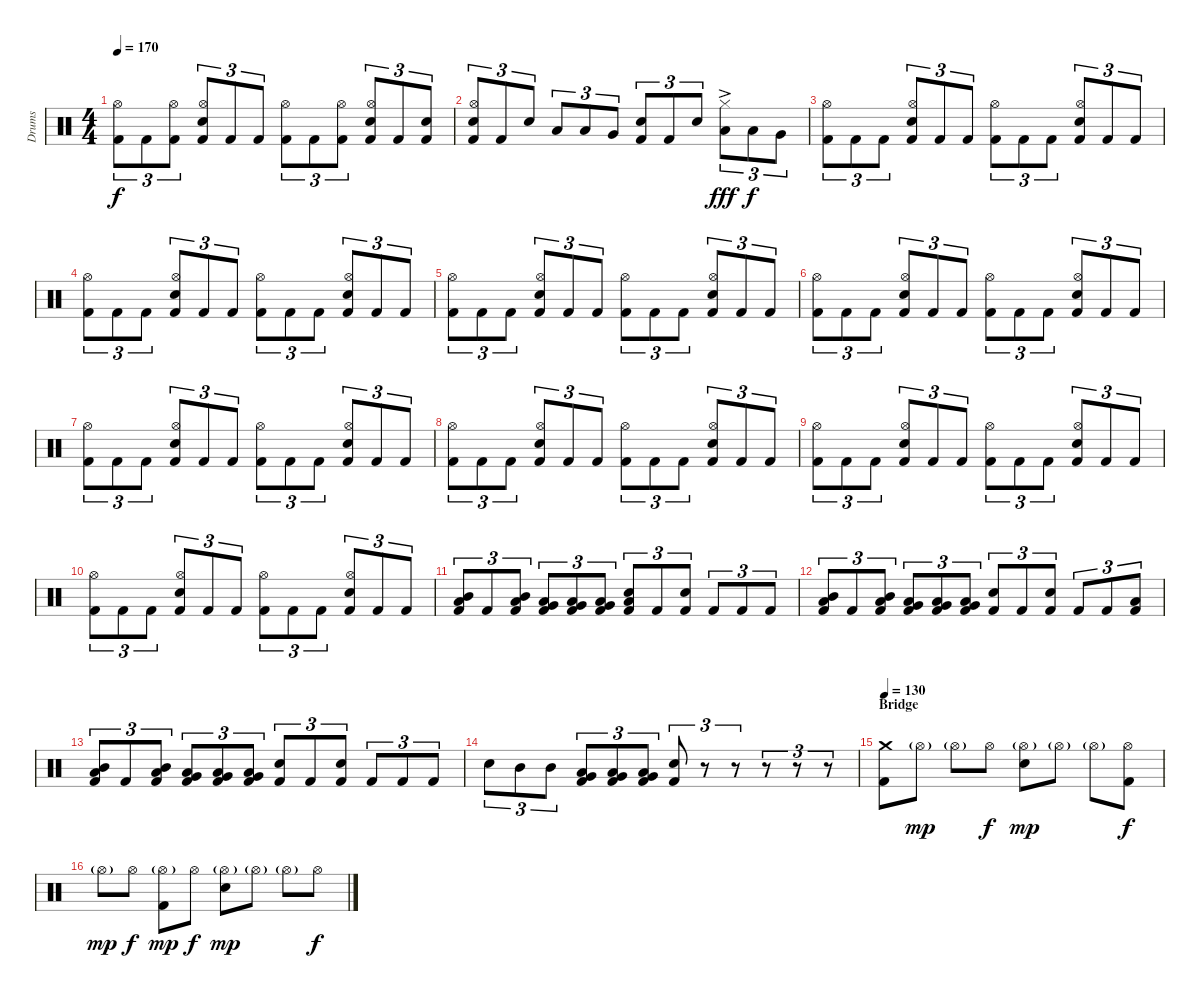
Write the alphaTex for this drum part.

\track ("Drums" "Drums") {instrument percussion}
\staff {score}
\articulation defaults
\ts (4 4)
\tempo 170
\clef neutral
\ks c
("Kick (hit) 2" "Hi-Hat (open)").8{tu (3 2) dy f} "Kick (hit) 2".8{tu (3 2)} ("Kick (hit) 2" "Hi-Hat (open)").8{tu (3 2)} ("Kick (hit) 2" "Electric Snare (hit)" "Hi-Hat (open)").8{tu (3 2)} "Kick (hit) 2".8{tu (3 2)} "Kick (hit) 2".8{tu (3 2)} ("Kick (hit) 2" "Hi-Hat (open)").8{tu (3 2)} "Kick (hit) 2".8{tu (3 2)} ("Kick (hit) 2" "Hi-Hat (open)").8{tu (3 2)} ("Kick (hit) 2" "Electric Snare (hit)" "Hi-Hat (open)").8{tu (3 2)} "Kick (hit) 2".8{tu (3 2)} ("Kick (hit) 2" "Electric Snare (hit)").8{tu (3 2)} |
("Kick (hit) 2" "Electric Snare (hit)" "Hi-Hat (open)").8{tu (3 2)} "Kick (hit) 2".8{tu (3 2)} "Electric Snare (hit)".8{tu (3 2)} "Low Tom (hit)".8{tu (3 2)} "Low Tom (hit)".8{tu (3 2)} "Very Low Tom (hit)".8{tu (3 2)} ("Kick (hit) 2" "Electric Snare (hit)").8{tu (3 2)} "Kick (hit) 2".8{tu (3 2)} "Electric Snare (hit)".8{tu (3 2)} ("Low Tom (hit)" "Hi-Hat (closed)"{ac}).8{tu (3 2) dy fff} "Low Tom (hit)".8{tu (3 2) dy f} "Very Low Tom (hit)".8{tu (3 2)} |
("Kick (hit) 2" "Hi-Hat (open)").8{tu (3 2)} "Kick (hit) 2".8{tu (3 2)} "Kick (hit) 2".8{tu (3 2)} ("Kick (hit) 2" "Electric Snare (hit)" "Hi-Hat (open)").8{tu (3 2)} "Kick (hit) 2".8{tu (3 2)} "Kick (hit) 2".8{tu (3 2)} ("Kick (hit) 2" "Hi-Hat (open)").8{tu (3 2)} "Kick (hit) 2".8{tu (3 2)} "Kick (hit) 2".8{tu (3 2)} ("Kick (hit) 2" "Electric Snare (hit)" "Hi-Hat (open)").8{tu (3 2)} "Kick (hit) 2".8{tu (3 2)} "Kick (hit) 2".8{tu (3 2)} |
("Kick (hit) 2" "Hi-Hat (open)").8{tu (3 2)} "Kick (hit) 2".8{tu (3 2)} "Kick (hit) 2".8{tu (3 2)} ("Kick (hit) 2" "Electric Snare (hit)" "Hi-Hat (open)").8{tu (3 2)} "Kick (hit) 2".8{tu (3 2)} "Kick (hit) 2".8{tu (3 2)} ("Kick (hit) 2" "Hi-Hat (open)").8{tu (3 2)} "Kick (hit) 2".8{tu (3 2)} "Kick (hit) 2".8{tu (3 2)} ("Kick (hit) 2" "Electric Snare (hit)" "Hi-Hat (open)").8{tu (3 2)} "Kick (hit) 2".8{tu (3 2)} "Kick (hit) 2".8{tu (3 2)} |
("Kick (hit) 2" "Hi-Hat (open)").8{tu (3 2)} "Kick (hit) 2".8{tu (3 2)} "Kick (hit) 2".8{tu (3 2)} ("Kick (hit) 2" "Electric Snare (hit)" "Hi-Hat (open)").8{tu (3 2)} "Kick (hit) 2".8{tu (3 2)} "Kick (hit) 2".8{tu (3 2)} ("Kick (hit) 2" "Hi-Hat (open)").8{tu (3 2)} "Kick (hit) 2".8{tu (3 2)} "Kick (hit) 2".8{tu (3 2)} ("Kick (hit) 2" "Electric Snare (hit)" "Hi-Hat (open)").8{tu (3 2)} "Kick (hit) 2".8{tu (3 2)} "Kick (hit) 2".8{tu (3 2)} |
("Kick (hit) 2" "Hi-Hat (open)").8{tu (3 2)} "Kick (hit) 2".8{tu (3 2)} "Kick (hit) 2".8{tu (3 2)} ("Kick (hit) 2" "Electric Snare (hit)" "Hi-Hat (open)").8{tu (3 2)} "Kick (hit) 2".8{tu (3 2)} "Kick (hit) 2".8{tu (3 2)} ("Kick (hit) 2" "Hi-Hat (open)").8{tu (3 2)} "Kick (hit) 2".8{tu (3 2)} "Kick (hit) 2".8{tu (3 2)} ("Kick (hit) 2" "Electric Snare (hit)" "Hi-Hat (open)").8{tu (3 2)} "Kick (hit) 2".8{tu (3 2)} "Kick (hit) 2".8{tu (3 2)} |
("Kick (hit) 2" "Hi-Hat (open)").8{tu (3 2)} "Kick (hit) 2".8{tu (3 2)} "Kick (hit) 2".8{tu (3 2)} ("Kick (hit) 2" "Electric Snare (hit)" "Hi-Hat (open)").8{tu (3 2)} "Kick (hit) 2".8{tu (3 2)} "Kick (hit) 2".8{tu (3 2)} ("Kick (hit) 2" "Hi-Hat (open)").8{tu (3 2)} "Kick (hit) 2".8{tu (3 2)} "Kick (hit) 2".8{tu (3 2)} ("Kick (hit) 2" "Electric Snare (hit)" "Hi-Hat (open)").8{tu (3 2)} "Kick (hit) 2".8{tu (3 2)} "Kick (hit) 2".8{tu (3 2)} |
("Kick (hit) 2" "Hi-Hat (open)").8{tu (3 2)} "Kick (hit) 2".8{tu (3 2)} "Kick (hit) 2".8{tu (3 2)} ("Kick (hit) 2" "Electric Snare (hit)" "Hi-Hat (open)").8{tu (3 2)} "Kick (hit) 2".8{tu (3 2)} "Kick (hit) 2".8{tu (3 2)} ("Kick (hit) 2" "Hi-Hat (open)").8{tu (3 2)} "Kick (hit) 2".8{tu (3 2)} "Kick (hit) 2".8{tu (3 2)} ("Kick (hit) 2" "Electric Snare (hit)" "Hi-Hat (open)").8{tu (3 2)} "Kick (hit) 2".8{tu (3 2)} "Kick (hit) 2".8{tu (3 2)} |
("Kick (hit) 2" "Hi-Hat (open)").8{tu (3 2)} "Kick (hit) 2".8{tu (3 2)} "Kick (hit) 2".8{tu (3 2)} ("Kick (hit) 2" "Electric Snare (hit)" "Hi-Hat (open)").8{tu (3 2)} "Kick (hit) 2".8{tu (3 2)} "Kick (hit) 2".8{tu (3 2)} ("Kick (hit) 2" "Hi-Hat (open)").8{tu (3 2)} "Kick (hit) 2".8{tu (3 2)} "Kick (hit) 2".8{tu (3 2)} ("Kick (hit) 2" "Electric Snare (hit)" "Hi-Hat (open)").8{tu (3 2)} "Kick (hit) 2".8{tu (3 2)} "Kick (hit) 2".8{tu (3 2)} |
("Kick (hit) 2" "Hi-Hat (open)").8{tu (3 2)} "Kick (hit) 2".8{tu (3 2)} "Kick (hit) 2".8{tu (3 2)} ("Kick (hit) 2" "Electric Snare (hit)" "Hi-Hat (open)").8{tu (3 2)} "Kick (hit) 2".8{tu (3 2)} "Kick (hit) 2".8{tu (3 2)} ("Kick (hit) 2" "Hi-Hat (open)").8{tu (3 2)} "Kick (hit) 2".8{tu (3 2)} "Kick (hit) 2".8{tu (3 2)} ("Kick (hit) 2" "Electric Snare (hit)" "Hi-Hat (open)").8{tu (3 2)} "Kick (hit) 2".8{tu (3 2)} "Kick (hit) 2".8{tu (3 2)} |
("Mid Tom (hit)" "Low Tom (hit)" "Kick (hit) 2").8{tu (3 2)} "Kick (hit) 2".8{tu (3 2)} ("Mid Tom (hit)" "Low Tom (hit)" "Kick (hit) 2").8{tu (3 2)} ("Low Tom (hit)" "Very Low Tom (hit)" "Kick (hit) 2").8{tu (3 2)} ("Low Tom (hit)" "Very Low Tom (hit)" "Kick (hit) 2").8{tu (3 2)} ("Very Low Tom (hit)" "Low Floor Tom (hit)" "Kick (hit) 2").8{tu (3 2)} ("Electric Snare (hit)" "Low Floor Tom (hit)" "Kick (hit) 2").8{tu (3 2)} "Kick (hit) 2".8{tu (3 2)} ("Electric Snare (hit)" "Kick (hit) 2").8{tu (3 2)} "Kick (hit) 2".8{tu (3 2)} "Kick (hit) 2".8{tu (3 2)} "Kick (hit) 2".8{tu (3 2)} |
("Mid Tom (hit)" "Low Tom (hit)" "Kick (hit) 2").8{tu (3 2)} "Kick (hit) 2".8{tu (3 2)} ("Mid Tom (hit)" "Low Tom (hit)" "Kick (hit) 2").8{tu (3 2)} ("Low Tom (hit)" "Very Low Tom (hit)" "Kick (hit) 2").8{tu (3 2)} ("Low Tom (hit)" "Very Low Tom (hit)" "Kick (hit) 2").8{tu (3 2)} ("Very Low Tom (hit)" "Low Floor Tom (hit)" "Kick (hit) 2").8{tu (3 2)} ("Electric Snare (hit)" "Kick (hit) 2").8{tu (3 2)} "Kick (hit) 2".8{tu (3 2)} ("Electric Snare (hit)" "Kick (hit) 2").8{tu (3 2)} "Kick (hit) 2".8{tu (3 2)} "Kick (hit) 2".8{tu (3 2)} ("Low Floor Tom (hit)" "Kick (hit) 2").8{tu (3 2)} |
("Mid Tom (hit)" "Low Tom (hit)" "Kick (hit) 2").8{tu (3 2)} "Kick (hit) 2".8{tu (3 2)} ("Mid Tom (hit)" "Low Tom (hit)" "Kick (hit) 2").8{tu (3 2)} ("Low Tom (hit)" "Very Low Tom (hit)" "Kick (hit) 2").8{tu (3 2)} ("Low Tom (hit)" "Very Low Tom (hit)" "Kick (hit) 2").8{tu (3 2)} ("Very Low Tom (hit)" "Low Floor Tom (hit)" "Kick (hit) 2").8{tu (3 2)} ("Electric Snare (hit)" "Kick (hit) 2").8{tu (3 2)} "Kick (hit) 2".8{tu (3 2)} ("Electric Snare (hit)" "Kick (hit) 2").8{tu (3 2)} "Kick (hit) 2".8{tu (3 2)} "Kick (hit) 2".8{tu (3 2)} "Kick (hit) 2".8{tu (3 2)} |
"Electric Snare (hit)".8{tu (3 2)} "Mid Tom (hit)".8{tu (3 2)} "Mid Tom (hit)".8{tu (3 2)} ("Low Tom (hit)" "Very Low Tom (hit)" "Kick (hit) 2").8{tu (3 2)} ("Low Tom (hit)" "Very Low Tom (hit)" "Kick (hit) 2").8{tu (3 2)} ("Very Low Tom (hit)" "Low Floor Tom (hit)" "Kick (hit) 2").8{tu (3 2)} ("Electric Snare (hit)" "Kick (hit) 2").8{tu (3 2)} r.8{tu (3 2)} r.8{tu (3 2)} r.8{tu (3 2)} r.8{tu (3 2)} r.8{tu (3 2)} |
\section ("" "Bridge")
\tempo 130
("Crash medium (hit)" "Kick (hit) 2").8 "Hi-Hat (open)"{g}.8{dy mp} "Hi-Hat (open)"{g}.8 "Hi-Hat (open)".8{dy f} ("Hi-Hat (open)"{g} "Electric Snare (hit)").8{dy mp} "Hi-Hat (open)"{g}.8 "Hi-Hat (open)"{g}.8 ("Hi-Hat (open)" "Kick (hit) 2").8{dy f} |
"Hi-Hat (open)"{g}.8{dy mp} "Hi-Hat (open)".8{dy f} ("Hi-Hat (open)"{g} "Kick (hit) 2").8{dy mp} "Hi-Hat (open)".8{dy f} ("Hi-Hat (open)"{g} "Electric Snare (hit)").8{dy mp} "Hi-Hat (open)"{g}.8 "Hi-Hat (open)"{g}.8 "Hi-Hat (open)".8{dy f}
